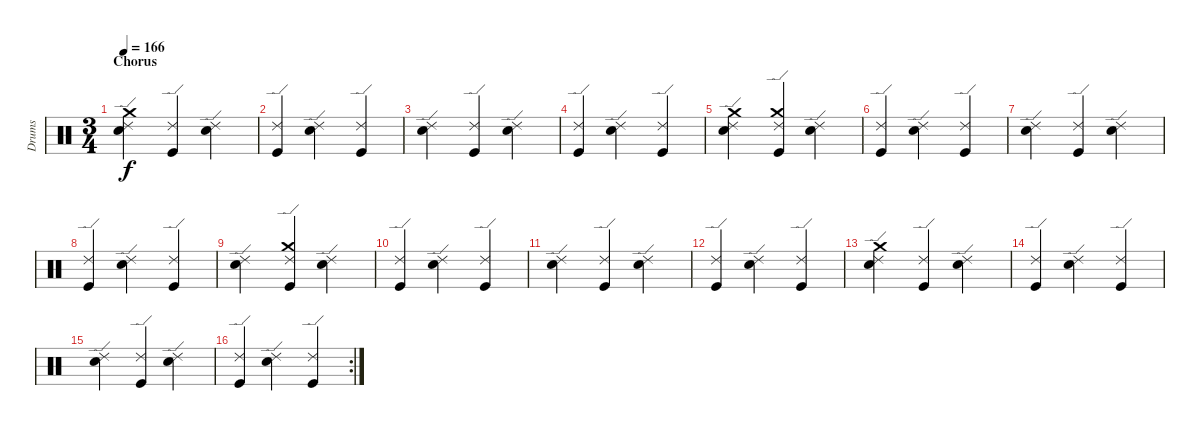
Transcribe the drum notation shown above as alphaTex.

\track ("Drums" "Drums") {instrument percussion}
\staff {score}
\articulation defaults
\ts (3 4)
\section ("" "Chorus")
\tempo 166
\clef neutral
\ks c
("Ride (edge) 2" "Crash medium (hit)" "Snare (hit) 2").4{dy f} ("Ride (edge) 2" "Kick (hit)").4 ("Ride (edge) 2" "Snare (hit) 2").4 |
("Ride (edge) 2" "Kick (hit)").4 ("Ride (edge) 2" "Snare (hit) 2").4 ("Ride (edge) 2" "Kick (hit)").4 |
("Ride (edge) 2" "Snare (hit) 2").4 ("Ride (edge) 2" "Kick (hit)").4 ("Ride (edge) 2" "Snare (hit) 2").4 |
("Ride (edge) 2" "Kick (hit)").4 ("Ride (edge) 2" "Snare (hit) 2").4 ("Ride (edge) 2" "Kick (hit)").4 |
("Ride (edge) 2" "Snare (hit) 2" "Crash medium (hit)").4 ("Ride (edge) 2" "Kick (hit)" "Crash medium (hit)").4 ("Ride (edge) 2" "Snare (hit) 2").4 |
("Ride (edge) 2" "Kick (hit)").4 ("Ride (edge) 2" "Snare (hit) 2").4 ("Ride (edge) 2" "Kick (hit)").4 |
("Ride (edge) 2" "Snare (hit) 2").4 ("Ride (edge) 2" "Kick (hit)").4 ("Ride (edge) 2" "Snare (hit) 2").4 |
("Ride (edge) 2" "Kick (hit)").4 ("Ride (edge) 2" "Snare (hit) 2").4 ("Ride (edge) 2" "Kick (hit)").4 |
("Ride (edge) 2" "Snare (hit) 2").4 ("Ride (edge) 2" "Kick (hit)" "Crash medium (hit)").4 ("Ride (edge) 2" "Snare (hit) 2").4 |
("Ride (edge) 2" "Kick (hit)").4 ("Ride (edge) 2" "Snare (hit) 2").4 ("Ride (edge) 2" "Kick (hit)").4 |
("Ride (edge) 2" "Snare (hit) 2").4 ("Ride (edge) 2" "Kick (hit)").4 ("Ride (edge) 2" "Snare (hit) 2").4 |
("Ride (edge) 2" "Kick (hit)").4 ("Ride (edge) 2" "Snare (hit) 2").4 ("Ride (edge) 2" "Kick (hit)").4 |
("Ride (edge) 2" "Snare (hit) 2" "Crash medium (hit)").4 ("Ride (edge) 2" "Kick (hit)").4 ("Ride (edge) 2" "Snare (hit) 2").4 |
("Ride (edge) 2" "Kick (hit)").4 ("Ride (edge) 2" "Snare (hit) 2").4 ("Ride (edge) 2" "Kick (hit)").4 |
("Ride (edge) 2" "Snare (hit) 2").4 ("Ride (edge) 2" "Kick (hit)").4 ("Ride (edge) 2" "Snare (hit) 2").4 |
\rc 2
("Ride (edge) 2" "Kick (hit)").4 ("Ride (edge) 2" "Snare (hit) 2").4 ("Ride (edge) 2" "Kick (hit)").4
